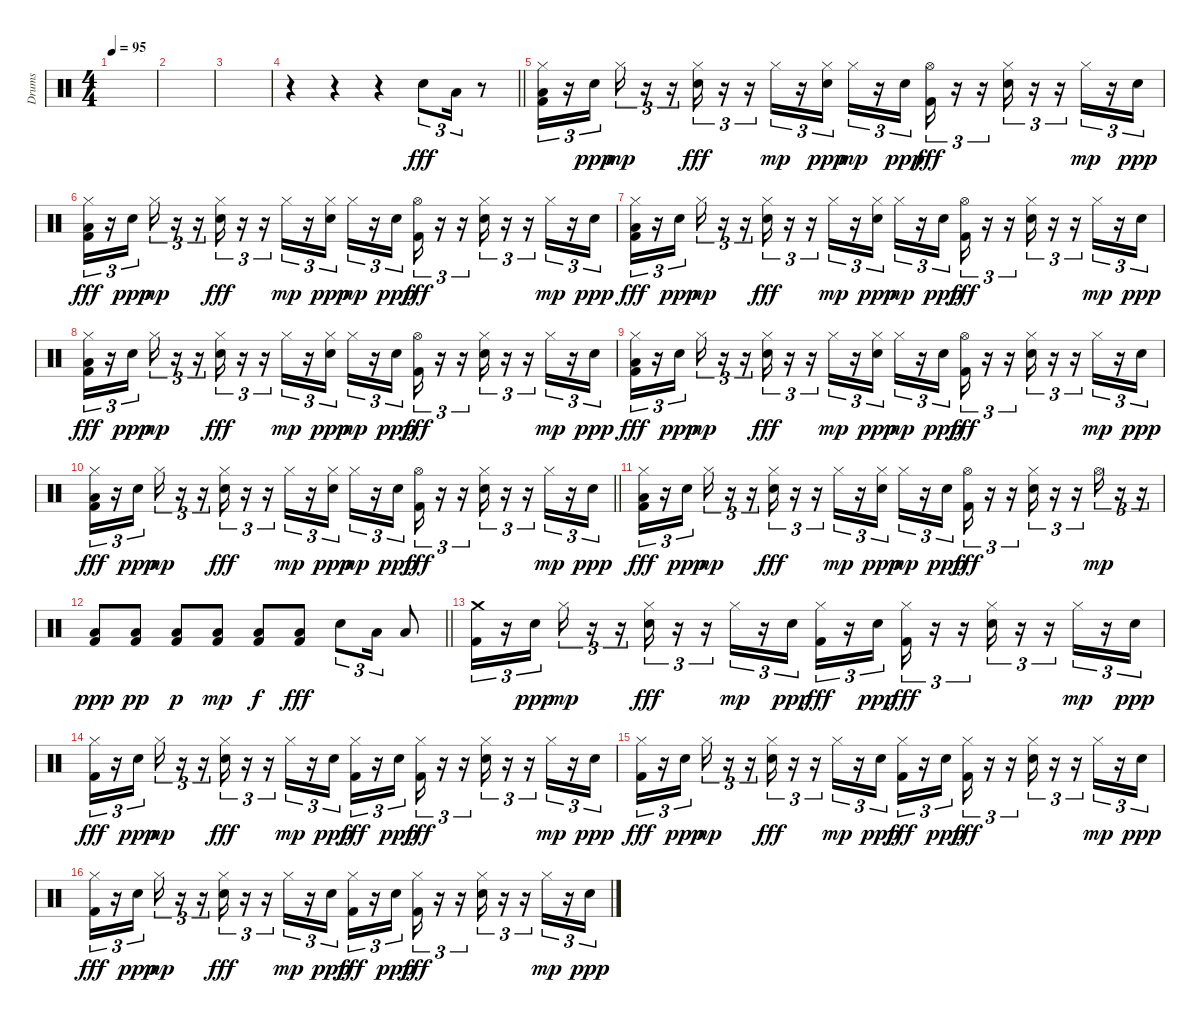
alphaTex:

\track ("Drums" "Drums") {instrument percussion}
\staff {score}
\articulation defaults
\ts (4 4)
\tempo 95
\clef neutral
\ks c
|
|
|
\barLineRight lightlight
r.4 r.4 r.4 "Electric Snare (hit)".8{tu (3 2) dy fff} "Low Tom (hit)".16{tu (3 2)} r.8 |
("Hi-Hat (closed)" "Low Floor Tom (hit)" "Kick (hit) 2").16{tu (3 2)} r.16{tu (3 2)} "Electric Snare (hit)".16{tu (3 2) dy ppp} "Hi-Hat (closed)".16{tu (3 2) dy mp} r.16{tu (3 2)} r.16{tu (3 2)} ("Hi-Hat (closed)" "Electric Snare (hit)").16{tu (3 2) dy fff} r.16{tu (3 2)} r.16{tu (3 2)} "Hi-Hat (closed)".16{tu (3 2) dy mp} r.16{tu (3 2)} ("Hi-Hat (closed)" "Electric Snare (hit)").16{tu (3 2) dy ppp} "Hi-Hat (closed)".16{tu (3 2) dy mp} r.16{tu (3 2)} "Electric Snare (hit)".16{tu (3 2) dy ppp} ("Hi-Hat (open)" "Kick (hit) 2").16{tu (3 2) dy fff} r.16{tu (3 2)} r.16{tu (3 2)} ("Hi-Hat (closed)" "Electric Snare (hit)").16{tu (3 2)} r.16{tu (3 2)} r.16{tu (3 2)} "Hi-Hat (closed)".16{tu (3 2) dy mp} r.16{tu (3 2)} "Electric Snare (hit)".16{tu (3 2) dy ppp} |
("Hi-Hat (closed)" "Low Floor Tom (hit)" "Kick (hit) 2").16{tu (3 2) dy fff} r.16{tu (3 2)} "Electric Snare (hit)".16{tu (3 2) dy ppp} "Hi-Hat (closed)".16{tu (3 2) dy mp} r.16{tu (3 2)} r.16{tu (3 2)} ("Hi-Hat (closed)" "Electric Snare (hit)").16{tu (3 2) dy fff} r.16{tu (3 2)} r.16{tu (3 2)} "Hi-Hat (closed)".16{tu (3 2) dy mp} r.16{tu (3 2)} ("Hi-Hat (closed)" "Electric Snare (hit)").16{tu (3 2) dy ppp} "Hi-Hat (closed)".16{tu (3 2) dy mp} r.16{tu (3 2)} "Electric Snare (hit)".16{tu (3 2) dy ppp} ("Hi-Hat (open)" "Kick (hit) 2").16{tu (3 2) dy fff} r.16{tu (3 2)} r.16{tu (3 2)} ("Hi-Hat (closed)" "Electric Snare (hit)").16{tu (3 2)} r.16{tu (3 2)} r.16{tu (3 2)} "Hi-Hat (closed)".16{tu (3 2) dy mp} r.16{tu (3 2)} "Electric Snare (hit)".16{tu (3 2) dy ppp} |
("Hi-Hat (closed)" "Low Floor Tom (hit)" "Kick (hit) 2").16{tu (3 2) dy fff} r.16{tu (3 2)} "Electric Snare (hit)".16{tu (3 2) dy ppp} "Hi-Hat (closed)".16{tu (3 2) dy mp} r.16{tu (3 2)} r.16{tu (3 2)} ("Hi-Hat (closed)" "Electric Snare (hit)").16{tu (3 2) dy fff} r.16{tu (3 2)} r.16{tu (3 2)} "Hi-Hat (closed)".16{tu (3 2) dy mp} r.16{tu (3 2)} ("Hi-Hat (closed)" "Electric Snare (hit)").16{tu (3 2) dy ppp} "Hi-Hat (closed)".16{tu (3 2) dy mp} r.16{tu (3 2)} "Electric Snare (hit)".16{tu (3 2) dy ppp} ("Hi-Hat (open)" "Kick (hit) 2").16{tu (3 2) dy fff} r.16{tu (3 2)} r.16{tu (3 2)} ("Hi-Hat (closed)" "Electric Snare (hit)").16{tu (3 2)} r.16{tu (3 2)} r.16{tu (3 2)} "Hi-Hat (closed)".16{tu (3 2) dy mp} r.16{tu (3 2)} "Electric Snare (hit)".16{tu (3 2) dy ppp} |
("Hi-Hat (closed)" "Low Floor Tom (hit)" "Kick (hit) 2").16{tu (3 2) dy fff} r.16{tu (3 2)} "Electric Snare (hit)".16{tu (3 2) dy ppp} "Hi-Hat (closed)".16{tu (3 2) dy mp} r.16{tu (3 2)} r.16{tu (3 2)} ("Hi-Hat (closed)" "Electric Snare (hit)").16{tu (3 2) dy fff} r.16{tu (3 2)} r.16{tu (3 2)} "Hi-Hat (closed)".16{tu (3 2) dy mp} r.16{tu (3 2)} ("Hi-Hat (closed)" "Electric Snare (hit)").16{tu (3 2) dy ppp} "Hi-Hat (closed)".16{tu (3 2) dy mp} r.16{tu (3 2)} "Electric Snare (hit)".16{tu (3 2) dy ppp} ("Hi-Hat (open)" "Kick (hit) 2").16{tu (3 2) dy fff} r.16{tu (3 2)} r.16{tu (3 2)} ("Hi-Hat (closed)" "Electric Snare (hit)").16{tu (3 2)} r.16{tu (3 2)} r.16{tu (3 2)} "Hi-Hat (closed)".16{tu (3 2) dy mp} r.16{tu (3 2)} "Electric Snare (hit)".16{tu (3 2) dy ppp} |
("Hi-Hat (closed)" "Low Floor Tom (hit)" "Kick (hit) 2").16{tu (3 2) dy fff} r.16{tu (3 2)} "Electric Snare (hit)".16{tu (3 2) dy ppp} "Hi-Hat (closed)".16{tu (3 2) dy mp} r.16{tu (3 2)} r.16{tu (3 2)} ("Hi-Hat (closed)" "Electric Snare (hit)").16{tu (3 2) dy fff} r.16{tu (3 2)} r.16{tu (3 2)} "Hi-Hat (closed)".16{tu (3 2) dy mp} r.16{tu (3 2)} ("Hi-Hat (closed)" "Electric Snare (hit)").16{tu (3 2) dy ppp} "Hi-Hat (closed)".16{tu (3 2) dy mp} r.16{tu (3 2)} "Electric Snare (hit)".16{tu (3 2) dy ppp} ("Hi-Hat (open)" "Kick (hit) 2").16{tu (3 2) dy fff} r.16{tu (3 2)} r.16{tu (3 2)} ("Hi-Hat (closed)" "Electric Snare (hit)").16{tu (3 2)} r.16{tu (3 2)} r.16{tu (3 2)} "Hi-Hat (closed)".16{tu (3 2) dy mp} r.16{tu (3 2)} "Electric Snare (hit)".16{tu (3 2) dy ppp} |
\barLineRight lightlight
("Hi-Hat (closed)" "Low Floor Tom (hit)" "Kick (hit) 2").16{tu (3 2) dy fff} r.16{tu (3 2)} "Electric Snare (hit)".16{tu (3 2) dy ppp} "Hi-Hat (closed)".16{tu (3 2) dy mp} r.16{tu (3 2)} r.16{tu (3 2)} ("Hi-Hat (closed)" "Electric Snare (hit)").16{tu (3 2) dy fff} r.16{tu (3 2)} r.16{tu (3 2)} "Hi-Hat (closed)".16{tu (3 2) dy mp} r.16{tu (3 2)} ("Hi-Hat (closed)" "Electric Snare (hit)").16{tu (3 2) dy ppp} "Hi-Hat (closed)".16{tu (3 2) dy mp} r.16{tu (3 2)} "Electric Snare (hit)".16{tu (3 2) dy ppp} ("Hi-Hat (open)" "Kick (hit) 2").16{tu (3 2) dy fff} r.16{tu (3 2)} r.16{tu (3 2)} ("Hi-Hat (closed)" "Electric Snare (hit)").16{tu (3 2)} r.16{tu (3 2)} r.16{tu (3 2)} "Hi-Hat (closed)".16{tu (3 2) dy mp} r.16{tu (3 2)} "Electric Snare (hit)".16{tu (3 2) dy ppp} |
("Hi-Hat (closed)" "Low Floor Tom (hit)" "Kick (hit) 2").16{tu (3 2) dy fff} r.16{tu (3 2)} "Electric Snare (hit)".16{tu (3 2) dy ppp} "Hi-Hat (closed)".16{tu (3 2) dy mp} r.16{tu (3 2)} r.16{tu (3 2)} ("Hi-Hat (closed)" "Electric Snare (hit)").16{tu (3 2) dy fff} r.16{tu (3 2)} r.16{tu (3 2)} "Hi-Hat (closed)".16{tu (3 2) dy mp} r.16{tu (3 2)} ("Hi-Hat (closed)" "Electric Snare (hit)").16{tu (3 2) dy ppp} "Hi-Hat (closed)".16{tu (3 2) dy mp} r.16{tu (3 2)} "Electric Snare (hit)".16{tu (3 2) dy ppp} ("Hi-Hat (open)" "Kick (hit) 2").16{tu (3 2) dy fff} r.16{tu (3 2)} r.16{tu (3 2)} ("Hi-Hat (closed)" "Electric Snare (hit)").16{tu (3 2)} r.16{tu (3 2)} r.16{tu (3 2)} "Hi-Hat (open)".16{tu (3 2) dy mp} r.16{tu (3 2)} r.16{tu (3 2)} |
\barLineRight lightlight
("Low Floor Tom (hit)" "Kick (hit) 2").8{dy ppp} ("Low Floor Tom (hit)" "Kick (hit) 2").8{dy pp} ("Low Floor Tom (hit)" "Kick (hit) 2").8{dy p} ("Low Floor Tom (hit)" "Kick (hit) 2").8{dy mp} ("Low Floor Tom (hit)" "Kick (hit) 2").8{dy f} ("Low Floor Tom (hit)" "Kick (hit) 2").8{dy fff} "Electric Snare (hit)".8{tu (3 2)} "Low Tom (hit)".16{tu (3 2)} "Low Floor Tom (hit)".8 |
("Crash medium (hit)" "Kick (hit) 2").16{tu (3 2)} r.16{tu (3 2)} "Electric Snare (hit)".16{tu (3 2) dy ppp} "Hi-Hat (closed)".16{tu (3 2) dy mp} r.16{tu (3 2)} r.16{tu (3 2)} ("Hi-Hat (closed)" "Electric Snare (hit)").16{tu (3 2) dy fff} r.16{tu (3 2)} r.16{tu (3 2)} "Hi-Hat (closed)".16{tu (3 2) dy mp} r.16{tu (3 2)} "Electric Snare (hit)".16{tu (3 2) dy ppp} ("Hi-Hat (closed)" "Kick (hit) 2").16{tu (3 2) dy fff} r.16{tu (3 2)} "Electric Snare (hit)".16{tu (3 2) dy ppp} ("Hi-Hat (closed)" "Kick (hit) 2").16{tu (3 2) dy fff} r.16{tu (3 2)} r.16{tu (3 2)} ("Hi-Hat (closed)" "Electric Snare (hit)").16{tu (3 2)} r.16{tu (3 2)} r.16{tu (3 2)} "Hi-Hat (closed)".16{tu (3 2) dy mp} r.16{tu (3 2)} "Electric Snare (hit)".16{tu (3 2) dy ppp} |
("Hi-Hat (closed)" "Kick (hit) 2").16{tu (3 2) dy fff} r.16{tu (3 2)} "Electric Snare (hit)".16{tu (3 2) dy ppp} "Hi-Hat (closed)".16{tu (3 2) dy mp} r.16{tu (3 2)} r.16{tu (3 2)} ("Hi-Hat (closed)" "Electric Snare (hit)").16{tu (3 2) dy fff} r.16{tu (3 2)} r.16{tu (3 2)} "Hi-Hat (closed)".16{tu (3 2) dy mp} r.16{tu (3 2)} "Electric Snare (hit)".16{tu (3 2) dy ppp} ("Hi-Hat (closed)" "Kick (hit) 2").16{tu (3 2) dy fff} r.16{tu (3 2)} "Electric Snare (hit)".16{tu (3 2) dy ppp} ("Hi-Hat (closed)" "Kick (hit) 2").16{tu (3 2) dy fff} r.16{tu (3 2)} r.16{tu (3 2)} ("Hi-Hat (closed)" "Electric Snare (hit)").16{tu (3 2)} r.16{tu (3 2)} r.16{tu (3 2)} "Hi-Hat (closed)".16{tu (3 2) dy mp} r.16{tu (3 2)} "Electric Snare (hit)".16{tu (3 2) dy ppp} |
("Hi-Hat (closed)" "Kick (hit) 2").16{tu (3 2) dy fff} r.16{tu (3 2)} "Electric Snare (hit)".16{tu (3 2) dy ppp} "Hi-Hat (closed)".16{tu (3 2) dy mp} r.16{tu (3 2)} r.16{tu (3 2)} ("Hi-Hat (closed)" "Electric Snare (hit)").16{tu (3 2) dy fff} r.16{tu (3 2)} r.16{tu (3 2)} "Hi-Hat (closed)".16{tu (3 2) dy mp} r.16{tu (3 2)} "Electric Snare (hit)".16{tu (3 2) dy ppp} ("Hi-Hat (closed)" "Kick (hit) 2").16{tu (3 2) dy fff} r.16{tu (3 2)} "Electric Snare (hit)".16{tu (3 2) dy ppp} ("Hi-Hat (closed)" "Kick (hit) 2").16{tu (3 2) dy fff} r.16{tu (3 2)} r.16{tu (3 2)} ("Hi-Hat (closed)" "Electric Snare (hit)").16{tu (3 2)} r.16{tu (3 2)} r.16{tu (3 2)} "Hi-Hat (closed)".16{tu (3 2) dy mp} r.16{tu (3 2)} "Electric Snare (hit)".16{tu (3 2) dy ppp} |
("Hi-Hat (closed)" "Kick (hit) 2").16{tu (3 2) dy fff} r.16{tu (3 2)} "Electric Snare (hit)".16{tu (3 2) dy ppp} "Hi-Hat (closed)".16{tu (3 2) dy mp} r.16{tu (3 2)} r.16{tu (3 2)} ("Hi-Hat (closed)" "Electric Snare (hit)").16{tu (3 2) dy fff} r.16{tu (3 2)} r.16{tu (3 2)} "Hi-Hat (closed)".16{tu (3 2) dy mp} r.16{tu (3 2)} "Electric Snare (hit)".16{tu (3 2) dy ppp} ("Hi-Hat (closed)" "Kick (hit) 2").16{tu (3 2) dy fff} r.16{tu (3 2)} "Electric Snare (hit)".16{tu (3 2) dy ppp} ("Hi-Hat (closed)" "Kick (hit) 2").16{tu (3 2) dy fff} r.16{tu (3 2)} r.16{tu (3 2)} ("Hi-Hat (closed)" "Electric Snare (hit)").16{tu (3 2)} r.16{tu (3 2)} r.16{tu (3 2)} "Hi-Hat (closed)".16{tu (3 2) dy mp} r.16{tu (3 2)} "Electric Snare (hit)".16{tu (3 2) dy ppp}
